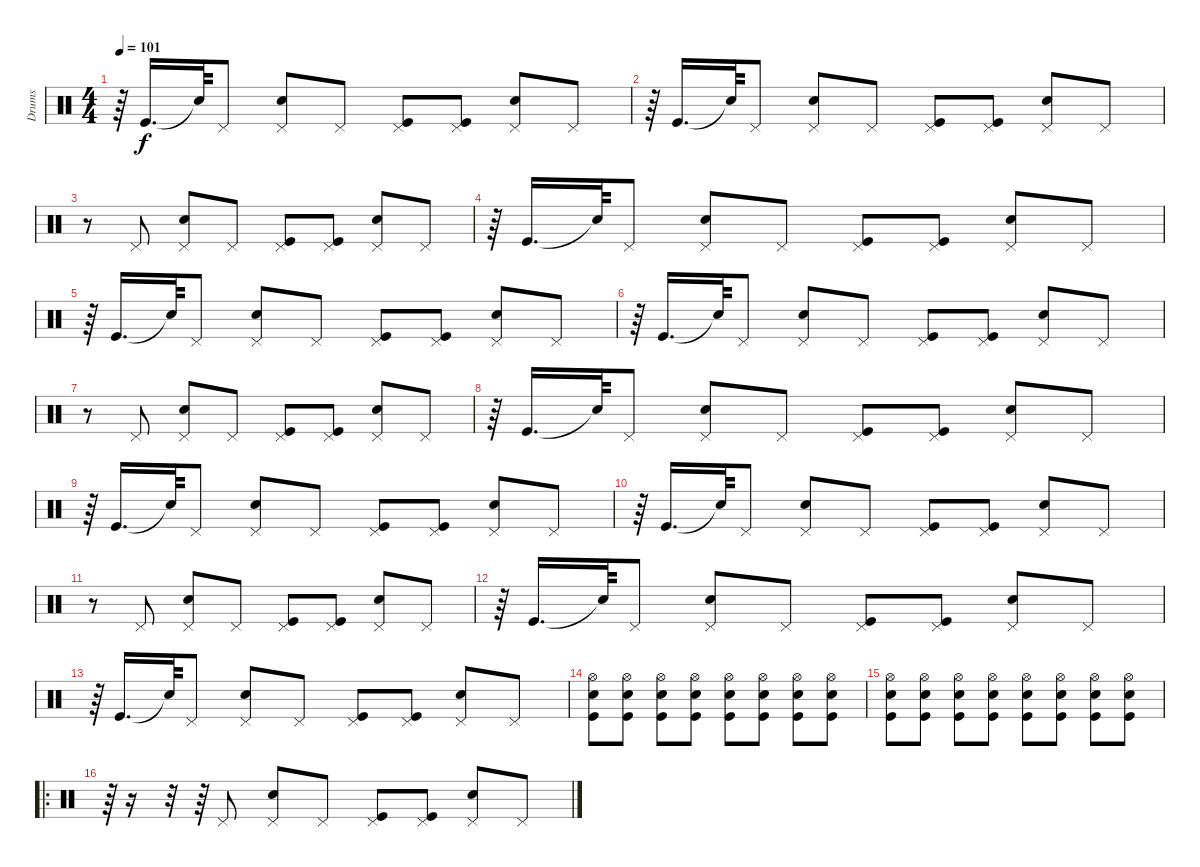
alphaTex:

\track ("Drums" "Drums") {instrument percussion}
\staff {score}
\articulation defaults
\ts (4 4)
\tempo 101
\clef neutral
\ks c
r.64{dy f} "Kick (hit)".16{d} "Snare (hit)"{t}.64 "Pedal Hi-Hat (hit)".8 ("Electric Snare (hit)" "Pedal Hi-Hat (hit)").8 "Pedal Hi-Hat (hit)".8 ("Kick (hit)" "Pedal Hi-Hat (hit)").8 ("Kick (hit)" "Pedal Hi-Hat (hit)").8 ("Electric Snare (hit)" "Pedal Hi-Hat (hit)").8 "Pedal Hi-Hat (hit)".8 |
r.64 "Kick (hit)".16{d} "Snare (hit)"{t}.64 "Pedal Hi-Hat (hit)".8 ("Electric Snare (hit)" "Pedal Hi-Hat (hit)").8 "Pedal Hi-Hat (hit)".8 ("Kick (hit)" "Pedal Hi-Hat (hit)").8 ("Kick (hit)" "Pedal Hi-Hat (hit)").8 ("Electric Snare (hit)" "Pedal Hi-Hat (hit)").8 "Pedal Hi-Hat (hit)".8 |
r.8 "Pedal Hi-Hat (hit)".8 ("Electric Snare (hit)" "Pedal Hi-Hat (hit)").8 "Pedal Hi-Hat (hit)".8 ("Kick (hit)" "Pedal Hi-Hat (hit)").8 ("Kick (hit)" "Pedal Hi-Hat (hit)").8 ("Electric Snare (hit)" "Pedal Hi-Hat (hit)").8 "Pedal Hi-Hat (hit)".8 |
r.64 "Kick (hit)".16{d} "Snare (hit)"{t}.64 "Pedal Hi-Hat (hit)".8 ("Electric Snare (hit)" "Pedal Hi-Hat (hit)").8 "Pedal Hi-Hat (hit)".8 ("Kick (hit)" "Pedal Hi-Hat (hit)").8 ("Kick (hit)" "Pedal Hi-Hat (hit)").8 ("Electric Snare (hit)" "Pedal Hi-Hat (hit)").8 "Pedal Hi-Hat (hit)".8 |
r.64 "Kick (hit)".16{d} "Snare (hit)"{t}.64 "Pedal Hi-Hat (hit)".8 ("Electric Snare (hit)" "Pedal Hi-Hat (hit)").8 "Pedal Hi-Hat (hit)".8 ("Kick (hit)" "Pedal Hi-Hat (hit)").8 ("Kick (hit)" "Pedal Hi-Hat (hit)").8 ("Electric Snare (hit)" "Pedal Hi-Hat (hit)").8 "Pedal Hi-Hat (hit)".8 |
r.64 "Kick (hit)".16{d} "Snare (hit)"{t}.64 "Pedal Hi-Hat (hit)".8 ("Electric Snare (hit)" "Pedal Hi-Hat (hit)").8 "Pedal Hi-Hat (hit)".8 ("Kick (hit)" "Pedal Hi-Hat (hit)").8 ("Kick (hit)" "Pedal Hi-Hat (hit)").8 ("Electric Snare (hit)" "Pedal Hi-Hat (hit)").8 "Pedal Hi-Hat (hit)".8 |
r.8 "Pedal Hi-Hat (hit)".8 ("Electric Snare (hit)" "Pedal Hi-Hat (hit)").8 "Pedal Hi-Hat (hit)".8 ("Kick (hit)" "Pedal Hi-Hat (hit)").8 ("Kick (hit)" "Pedal Hi-Hat (hit)").8 ("Electric Snare (hit)" "Pedal Hi-Hat (hit)").8 "Pedal Hi-Hat (hit)".8 |
r.64 "Kick (hit)".16{d} "Snare (hit)"{t}.64 "Pedal Hi-Hat (hit)".8 ("Electric Snare (hit)" "Pedal Hi-Hat (hit)").8 "Pedal Hi-Hat (hit)".8 ("Kick (hit)" "Pedal Hi-Hat (hit)").8 ("Kick (hit)" "Pedal Hi-Hat (hit)").8 ("Electric Snare (hit)" "Pedal Hi-Hat (hit)").8 "Pedal Hi-Hat (hit)".8 |
r.64 "Kick (hit)".16{d} "Snare (hit)"{t}.64 "Pedal Hi-Hat (hit)".8 ("Electric Snare (hit)" "Pedal Hi-Hat (hit)").8 "Pedal Hi-Hat (hit)".8 ("Kick (hit)" "Pedal Hi-Hat (hit)").8 ("Kick (hit)" "Pedal Hi-Hat (hit)").8 ("Electric Snare (hit)" "Pedal Hi-Hat (hit)").8 "Pedal Hi-Hat (hit)".8 |
r.64 "Kick (hit)".16{d} "Snare (hit)"{t}.64 "Pedal Hi-Hat (hit)".8 ("Electric Snare (hit)" "Pedal Hi-Hat (hit)").8 "Pedal Hi-Hat (hit)".8 ("Kick (hit)" "Pedal Hi-Hat (hit)").8 ("Kick (hit)" "Pedal Hi-Hat (hit)").8 ("Electric Snare (hit)" "Pedal Hi-Hat (hit)").8 "Pedal Hi-Hat (hit)".8 |
r.8 "Pedal Hi-Hat (hit)".8 ("Electric Snare (hit)" "Pedal Hi-Hat (hit)").8 "Pedal Hi-Hat (hit)".8 ("Kick (hit)" "Pedal Hi-Hat (hit)").8 ("Kick (hit)" "Pedal Hi-Hat (hit)").8 ("Electric Snare (hit)" "Pedal Hi-Hat (hit)").8 "Pedal Hi-Hat (hit)".8 |
r.64 "Kick (hit)".16{d} "Snare (hit)"{t}.64 "Pedal Hi-Hat (hit)".8 ("Electric Snare (hit)" "Pedal Hi-Hat (hit)").8 "Pedal Hi-Hat (hit)".8 ("Kick (hit)" "Pedal Hi-Hat (hit)").8 ("Kick (hit)" "Pedal Hi-Hat (hit)").8 ("Electric Snare (hit)" "Pedal Hi-Hat (hit)").8 "Pedal Hi-Hat (hit)".8 |
r.64 "Kick (hit)".16{d} "Snare (hit)"{t}.64 "Pedal Hi-Hat (hit)".8 ("Electric Snare (hit)" "Pedal Hi-Hat (hit)").8 "Pedal Hi-Hat (hit)".8 ("Kick (hit)" "Pedal Hi-Hat (hit)").8 ("Kick (hit)" "Pedal Hi-Hat (hit)").8 ("Electric Snare (hit)" "Pedal Hi-Hat (hit)").8 "Pedal Hi-Hat (hit)".8 |
("Kick (hit)" "Electric Snare (hit)" "Hi-Hat (open)").8 ("Kick (hit)" "Electric Snare (hit)" "Hi-Hat (open)").8 ("Kick (hit)" "Electric Snare (hit)" "Hi-Hat (open)").8 ("Kick (hit)" "Electric Snare (hit)" "Hi-Hat (open)").8 ("Kick (hit)" "Electric Snare (hit)" "Hi-Hat (open)").8 ("Kick (hit)" "Electric Snare (hit)" "Hi-Hat (open)").8 ("Kick (hit)" "Electric Snare (hit)" "Hi-Hat (open)").8 ("Kick (hit)" "Electric Snare (hit)" "Hi-Hat (open)").8 |
("Kick (hit)" "Electric Snare (hit)" "Hi-Hat (open)").8 ("Kick (hit)" "Electric Snare (hit)" "Hi-Hat (open)").8 ("Kick (hit)" "Electric Snare (hit)" "Hi-Hat (open)").8 ("Kick (hit)" "Electric Snare (hit)" "Hi-Hat (open)").8 ("Kick (hit)" "Electric Snare (hit)" "Hi-Hat (open)").8 ("Kick (hit)" "Electric Snare (hit)" "Hi-Hat (open)").8 ("Kick (hit)" "Electric Snare (hit)" "Hi-Hat (open)").8 ("Kick (hit)" "Electric Snare (hit)" "Hi-Hat (open)").8 |
\ro
r.64 r.16 r.32 r.64 "Pedal Hi-Hat (hit)".8 ("Electric Snare (hit)" "Pedal Hi-Hat (hit)").8 "Pedal Hi-Hat (hit)".8 ("Kick (hit)" "Pedal Hi-Hat (hit)").8 ("Kick (hit)" "Pedal Hi-Hat (hit)").8 ("Electric Snare (hit)" "Pedal Hi-Hat (hit)").8 "Pedal Hi-Hat (hit)".8
